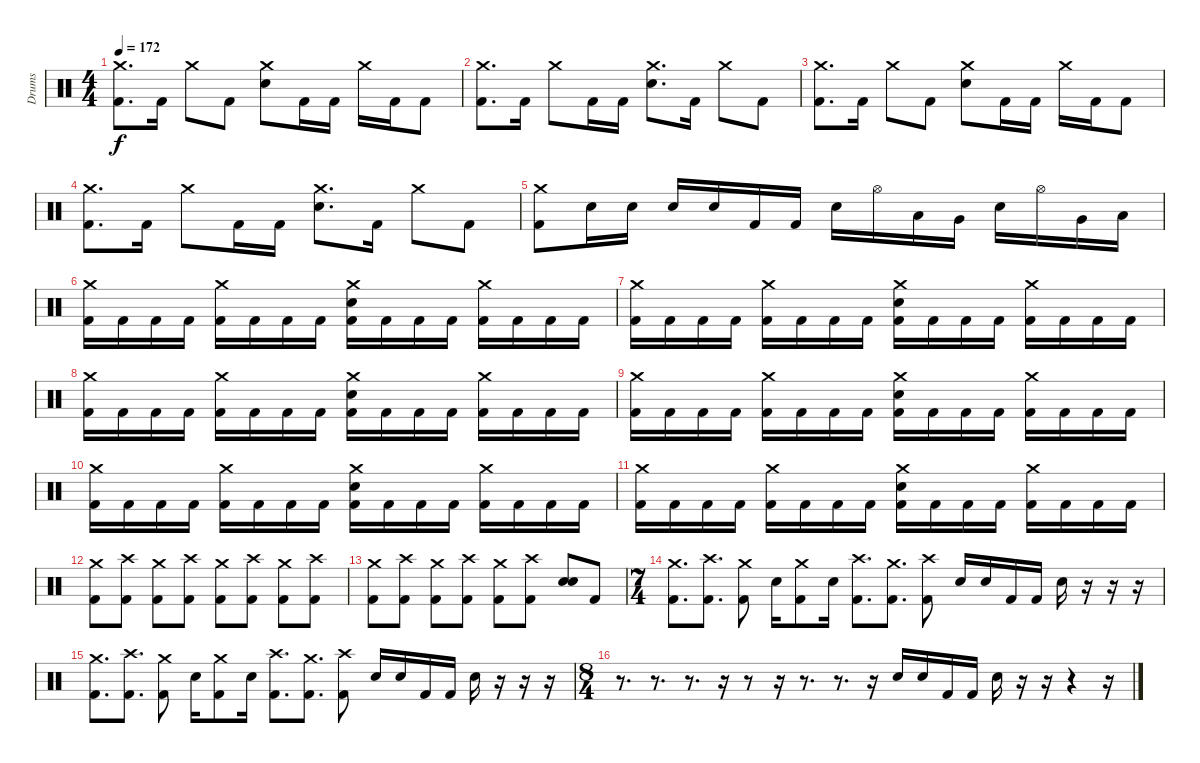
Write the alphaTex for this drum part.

\track ("Drums" "Drums") {instrument percussion}
\staff {score}
\articulation defaults
\ts (4 4)
\tempo 172
\clef neutral
\ks c
("Crash medium (hit)" "Kick (hit) 2").8{d dy f} "Kick (hit) 2".16 "Crash medium (hit)".8 "Kick (hit) 2".8 ("Crash medium (hit)" "Electric Snare (hit)").8 "Kick (hit) 2".16 "Kick (hit) 2".16 "Crash medium (hit)".16 "Kick (hit) 2".16 "Kick (hit) 2".8 |
("Crash medium (hit)" "Kick (hit) 2").8{d} "Kick (hit) 2".16 "Crash medium (hit)".8 "Kick (hit) 2".16 "Kick (hit) 2".16 ("Crash medium (hit)" "Electric Snare (hit)").8{d} "Kick (hit) 2".16 "Crash medium (hit)".8 "Kick (hit) 2".8 |
("Crash medium (hit)" "Kick (hit) 2").8{d} "Kick (hit) 2".16 "Crash medium (hit)".8 "Kick (hit) 2".8 ("Crash medium (hit)" "Electric Snare (hit)").8 "Kick (hit) 2".16 "Kick (hit) 2".16 "Crash medium (hit)".16 "Kick (hit) 2".16 "Kick (hit) 2".8 |
("Crash medium (hit)" "Kick (hit) 2").8{d} "Kick (hit) 2".16 "Crash medium (hit)".8 "Kick (hit) 2".16 "Kick (hit) 2".16 ("Crash medium (hit)" "Electric Snare (hit)").8{d} "Kick (hit) 2".16 "Crash medium (hit)".8 "Kick (hit) 2".8 |
("Crash medium (hit)" "Kick (hit) 2").8 "Electric Snare (hit)".16 "Electric Snare (hit)".16 "Electric Snare (hit)".16 "Electric Snare (hit)".16 "Kick (hit) 2".16 "Kick (hit) 2".16 "Electric Snare (hit)".16 "Hi-Hat (open)".16 "Low Tom (hit)".16 "Very Low Tom (hit)".16 "Electric Snare (hit)".16 "Hi-Hat (open)".16 "Very Low Tom (hit)".16 "Low Floor Tom (hit)".16 |
("Crash medium (hit)" "Kick (hit) 2").16 "Kick (hit) 2".16 "Kick (hit) 2".16 "Kick (hit) 2".16 ("Crash medium (hit)" "Kick (hit) 2").16 "Kick (hit) 2".16 "Kick (hit) 2".16 "Kick (hit) 2".16 ("Crash medium (hit)" "Electric Snare (hit)" "Kick (hit) 2").16 "Kick (hit) 2".16 "Kick (hit) 2".16 "Kick (hit) 2".16 ("Crash medium (hit)" "Kick (hit) 2").16 "Kick (hit) 2".16 "Kick (hit) 2".16 "Kick (hit) 2".16 |
("Crash medium (hit)" "Kick (hit) 2").16 "Kick (hit) 2".16 "Kick (hit) 2".16 "Kick (hit) 2".16 ("Crash medium (hit)" "Kick (hit) 2").16 "Kick (hit) 2".16 "Kick (hit) 2".16 "Kick (hit) 2".16 ("Crash medium (hit)" "Electric Snare (hit)" "Kick (hit) 2").16 "Kick (hit) 2".16 "Kick (hit) 2".16 "Kick (hit) 2".16 ("Crash medium (hit)" "Kick (hit) 2").16 "Kick (hit) 2".16 "Kick (hit) 2".16 "Kick (hit) 2".16 |
("Crash medium (hit)" "Kick (hit) 2").16 "Kick (hit) 2".16 "Kick (hit) 2".16 "Kick (hit) 2".16 ("Crash medium (hit)" "Kick (hit) 2").16 "Kick (hit) 2".16 "Kick (hit) 2".16 "Kick (hit) 2".16 ("Crash medium (hit)" "Electric Snare (hit)" "Kick (hit) 2").16 "Kick (hit) 2".16 "Kick (hit) 2".16 "Kick (hit) 2".16 ("Crash medium (hit)" "Kick (hit) 2").16 "Kick (hit) 2".16 "Kick (hit) 2".16 "Kick (hit) 2".16 |
("Crash medium (hit)" "Kick (hit) 2").16 "Kick (hit) 2".16 "Kick (hit) 2".16 "Kick (hit) 2".16 ("Crash medium (hit)" "Kick (hit) 2").16 "Kick (hit) 2".16 "Kick (hit) 2".16 "Kick (hit) 2".16 ("Crash medium (hit)" "Electric Snare (hit)" "Kick (hit) 2").16 "Kick (hit) 2".16 "Kick (hit) 2".16 "Kick (hit) 2".16 ("Crash medium (hit)" "Kick (hit) 2").16 "Kick (hit) 2".16 "Kick (hit) 2".16 "Kick (hit) 2".16 |
("Crash medium (hit)" "Kick (hit) 2").16 "Kick (hit) 2".16 "Kick (hit) 2".16 "Kick (hit) 2".16 ("Crash medium (hit)" "Kick (hit) 2").16 "Kick (hit) 2".16 "Kick (hit) 2".16 "Kick (hit) 2".16 ("Crash medium (hit)" "Electric Snare (hit)" "Kick (hit) 2").16 "Kick (hit) 2".16 "Kick (hit) 2".16 "Kick (hit) 2".16 ("Crash medium (hit)" "Kick (hit) 2").16 "Kick (hit) 2".16 "Kick (hit) 2".16 "Kick (hit) 2".16 |
("Crash medium (hit)" "Kick (hit) 2").16 "Kick (hit) 2".16 "Kick (hit) 2".16 "Kick (hit) 2".16 ("Crash medium (hit)" "Kick (hit) 2").16 "Kick (hit) 2".16 "Kick (hit) 2".16 "Kick (hit) 2".16 ("Crash medium (hit)" "Electric Snare (hit)" "Kick (hit) 2").16 "Kick (hit) 2".16 "Kick (hit) 2".16 "Kick (hit) 2".16 ("Crash medium (hit)" "Kick (hit) 2").16 "Kick (hit) 2".16 "Kick (hit) 2".16 "Kick (hit) 2".16 |
("Crash medium (hit)" "Kick (hit) 2").8 ("Crash high (hit)" "Kick (hit) 2").8 ("Crash medium (hit)" "Kick (hit) 2").8 ("Crash high (hit)" "Kick (hit) 2").8 ("Crash medium (hit)" "Kick (hit) 2").8 ("Crash high (hit)" "Kick (hit) 2").8 ("Crash medium (hit)" "Kick (hit) 2").8 ("Crash high (hit)" "Kick (hit) 2").8 |
("Crash medium (hit)" "Kick (hit) 2").8 ("Crash high (hit)" "Kick (hit) 2").8 ("Crash medium (hit)" "Kick (hit) 2").8 ("Crash high (hit)" "Kick (hit) 2").8 ("Crash medium (hit)" "Kick (hit) 2").8 ("Crash high (hit)" "Kick (hit) 2").8 ("Electric Snare (hit)" "Electric Snare (hit)").8 "Kick (hit) 2".8 |
\ts (7 4)
("Crash medium (hit)" "Kick (hit) 2").8{d} ("Crash high (hit)" "Kick (hit) 2").8{d} ("Crash medium (hit)" "Kick (hit) 2").8 "Electric Snare (hit)".16 ("Crash medium (hit)" "Kick (hit) 2").8 "Electric Snare (hit)".16 ("Crash high (hit)" "Kick (hit) 2").8{d} ("Crash medium (hit)" "Kick (hit) 2").8{d} ("Crash high (hit)" "Kick (hit) 2").8 "Electric Snare (hit)".16 "Electric Snare (hit)".16 "Kick (hit) 2".16 "Kick (hit) 2".16 "Electric Snare (hit)".16 r.16 r.16 r.16 |
("Crash medium (hit)" "Kick (hit) 2").8{d} ("Crash high (hit)" "Kick (hit) 2").8{d} ("Crash medium (hit)" "Kick (hit) 2").8 "Electric Snare (hit)".16 ("Crash medium (hit)" "Kick (hit) 2").8 "Electric Snare (hit)".16 ("Crash high (hit)" "Kick (hit) 2").8{d} ("Crash medium (hit)" "Kick (hit) 2").8{d} ("Crash high (hit)" "Kick (hit) 2").8 "Electric Snare (hit)".16 "Electric Snare (hit)".16 "Kick (hit) 2".16 "Kick (hit) 2".16 "Electric Snare (hit)".16 r.16 r.16 r.16 |
\ts (8 4)
r.8{d} r.8{d} r.8{d} r.16 r.8 r.16 r.8{d} r.8{d} r.16 "Electric Snare (hit)".16 "Electric Snare (hit)".16 "Kick (hit) 2".16 "Kick (hit) 2".16 "Electric Snare (hit)".16 r.16 r.16 r.4 r.16
